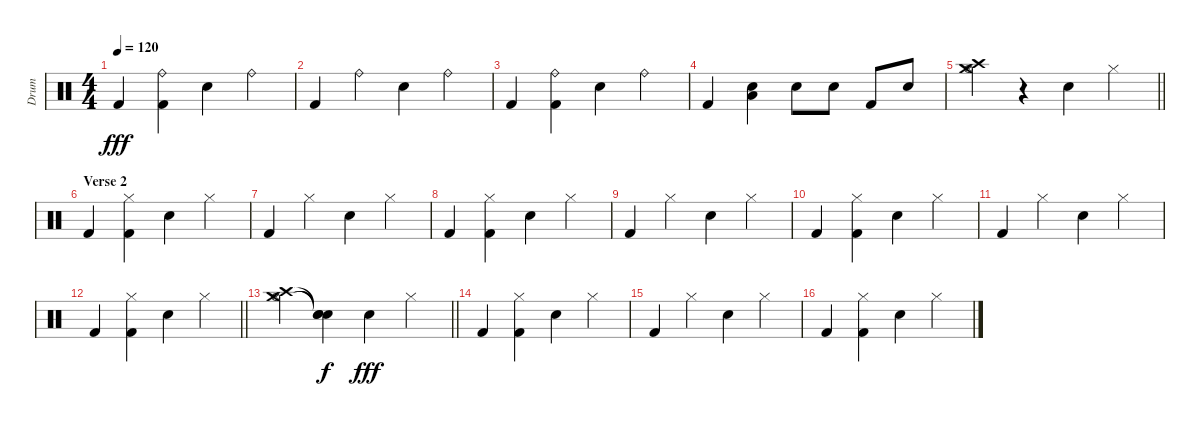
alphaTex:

\track ("Drum" "Drum") {instrument percussion}
\staff {score}
\articulation defaults
\ts (4 4)
\tempo 120
\clef neutral
\ks c "Kick (hit) 2".4{dy fff}
("Kick (hit) 2" "Ride (bell)").4 "Electric Snare (hit)".4 "Ride (bell)".4 |
"Kick (hit) 2".4 "Ride (bell)".4 "Electric Snare (hit)".4 "Ride (bell)".4 |
"Kick (hit) 2".4 ("Kick (hit) 2" "Ride (bell)").4 "Electric Snare (hit)".4 "Ride (bell)".4 |
"Kick (hit) 2".4 ("Electric Snare (hit)" "Low Tom (hit)").4 "Electric Snare (hit)".8 "Electric Snare (hit)".8 "Kick (hit) 2".8 "Electric Snare (hit)".8 |
\barLineRight lightlight
("Hi-Hat (open)" "Crash high (hit)" "Crash medium (hit)").4 r.4 "Electric Snare (hit)".4 "Hi-Hat (closed)".4 |
\section ("" "Verse 2")
"Kick (hit) 2".4 ("Kick (hit) 2" "Hi-Hat (closed)").4 "Electric Snare (hit)".4 "Hi-Hat (closed)".4 |
"Kick (hit) 2".4 "Hi-Hat (closed)".4 "Electric Snare (hit)".4 "Hi-Hat (closed)".4 |
"Kick (hit) 2".4 ("Kick (hit) 2" "Hi-Hat (closed)").4 "Electric Snare (hit)".4 "Hi-Hat (closed)".4 |
"Kick (hit) 2".4 "Hi-Hat (closed)".4 "Electric Snare (hit)".4 "Hi-Hat (closed)".4 |
"Kick (hit) 2".4 ("Kick (hit) 2" "Hi-Hat (closed)").4 "Electric Snare (hit)".4 "Hi-Hat (closed)".4 |
"Kick (hit) 2".4 "Hi-Hat (closed)".4 "Electric Snare (hit)".4 "Hi-Hat (closed)".4 |
\barLineRight lightlight "Kick (hit) 2".4
("Kick (hit) 2" "Hi-Hat (closed)").4 "Electric Snare (hit)".4 "Hi-Hat (closed)".4 |
\section ("" "")
\barLineRight lightlight
("Hi-Hat (open)" "Crash high (hit)" "Crash medium (hit)").4 ("Snare (hit)"{t} "Snare (hit)"{t} "Snare (hit)"{t}).4{dy f} "Electric Snare (hit)".4{dy fff} "Hi-Hat (closed)".4 |
"Kick (hit) 2".4 ("Kick (hit) 2" "Hi-Hat (closed)").4 "Electric Snare (hit)".4 "Hi-Hat (closed)".4 |
"Kick (hit) 2".4 "Hi-Hat (closed)".4 "Electric Snare (hit)".4 "Hi-Hat (closed)".4 |
"Kick (hit) 2".4 ("Kick (hit) 2" "Hi-Hat (closed)").4 "Electric Snare (hit)".4 "Hi-Hat (closed)".4
